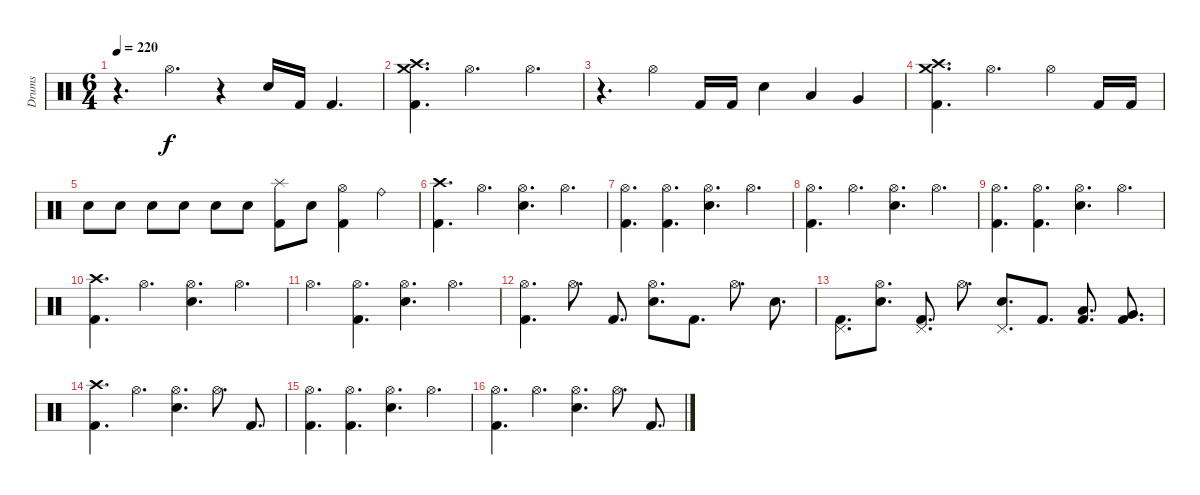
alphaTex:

\track ("Drums" "Drums") {instrument percussion}
\staff {score}
\articulation defaults
\ts (6 4)
\tempo 220
\clef neutral
\ks c
r.4{d dy f} "Hi-Hat (open)".4{d} r.4 "Electric Snare (hit)".16 "Kick (hit) 2".16 "Kick (hit) 2".4{d} |
("Crash medium (hit)" "Crash high (hit)" "Kick (hit) 2").4{d} "Hi-Hat (open)".2{d} "Hi-Hat (open)".4{d} |
r.4{d} "Hi-Hat (open)".4 "Kick (hit) 2".16 "Kick (hit) 2".16 "Electric Snare (hit)".4 "Low Tom (hit)".4 "Very Low Tom (hit)".4 |
("Crash medium (hit)" "Crash high (hit)" "Kick (hit) 2").4{d} "Hi-Hat (open)".2{d} "Hi-Hat (open)".4 "Kick (hit) 2".16 "Kick (hit) 2".16 |
"Electric Snare (hit)".8 "Electric Snare (hit)".8 "Electric Snare (hit)".8 "Electric Snare (hit)".8 "Electric Snare (hit)".8 "Electric Snare (hit)".8 ("Splash (hit)" "Kick (hit) 2").8 "Electric Snare (hit)".8 ("Hi-Hat (open)" "Kick (hit) 2").4 "Ride (bell)".4 |
("Crash high (hit)" "Kick (hit) 2").4{d} "Hi-Hat (open)".4{d} ("Hi-Hat (open)" "Electric Snare (hit)").4{d} "Hi-Hat (open)".4{d} |
("Hi-Hat (open)" "Kick (hit) 2").4{d} ("Hi-Hat (open)" "Kick (hit) 2").4{d} ("Hi-Hat (open)" "Electric Snare (hit)").4{d} "Hi-Hat (open)".4{d} |
("Hi-Hat (open)" "Kick (hit) 2").4{d} "Hi-Hat (open)".4{d} ("Hi-Hat (open)" "Electric Snare (hit)").4{d} "Hi-Hat (open)".4{d} |
("Hi-Hat (open)" "Kick (hit) 2").4{d} ("Hi-Hat (open)" "Kick (hit) 2").4{d} ("Hi-Hat (open)" "Electric Snare (hit)").4{d} "Hi-Hat (open)".4{d} |
("Crash high (hit)" "Kick (hit) 2").4{d} "Hi-Hat (open)".4{d} ("Hi-Hat (open)" "Electric Snare (hit)").4{d} "Hi-Hat (open)".4{d} |
"Hi-Hat (open)".4{d} ("Hi-Hat (open)" "Kick (hit) 2").4{d} ("Hi-Hat (open)" "Electric Snare (hit)").4{d} "Hi-Hat (open)".4{d} |
("Hi-Hat (open)" "Kick (hit) 2").4{d} "Hi-Hat (open)".8{d} "Kick (hit) 2".8{d} ("Hi-Hat (open)" "Electric Snare (hit)").8{d} "Kick (hit) 2".8{d} "Hi-Hat (open)".8{d} "Electric Snare (hit)".8{d} |
("Pedal Hi-Hat (hit)" "Kick (hit) 2").8{d} ("Hi-Hat (open)" "Electric Snare (hit)").8{d} ("Pedal Hi-Hat (hit)" "Kick (hit) 2").8{d} "Hi-Hat (open)".8{d} ("Pedal Hi-Hat (hit)" "Electric Snare (hit)").8{d} "Kick (hit) 2".8{d} ("Low Tom (hit)" "Kick (hit) 2").8{d} ("Very Low Tom (hit)" "Kick (hit) 2").8{d} |
("Crash high (hit)" "Kick (hit) 2").4{d} "Hi-Hat (open)".4{d} ("Hi-Hat (open)" "Electric Snare (hit)").4{d} "Hi-Hat (open)".8{d} "Kick (hit) 2".8{d} |
("Hi-Hat (open)" "Kick (hit) 2").4{d} ("Hi-Hat (open)" "Kick (hit) 2").4{d} ("Hi-Hat (open)" "Electric Snare (hit)").4{d} "Hi-Hat (open)".4{d} |
("Hi-Hat (open)" "Kick (hit) 2").4{d} "Hi-Hat (open)".4{d} ("Hi-Hat (open)" "Electric Snare (hit)").4{d} "Hi-Hat (open)".8{d} "Kick (hit) 2".8{d}
